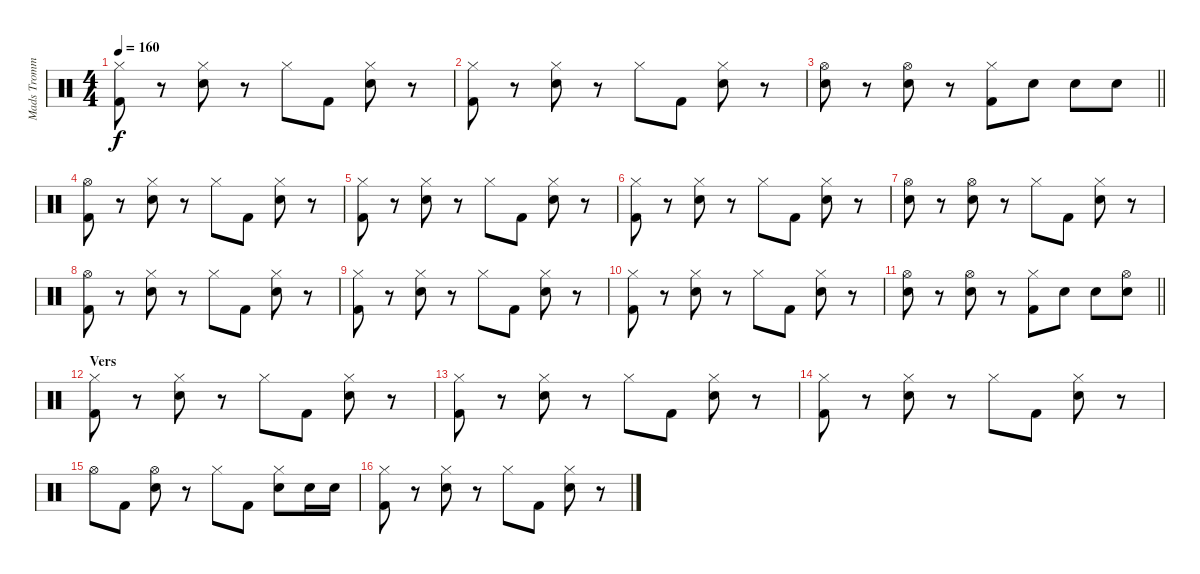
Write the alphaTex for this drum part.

\track ("Mads Trommer" "Mads Tromm") {instrument percussion}
\staff {score}
\articulation defaults
\ts (4 4)
\tempo 160
\clef neutral
\ks c
("Hi-Hat (closed)" "Kick (hit) 2").8{dy f} r.8 ("Hi-Hat (closed)" "Electric Snare (hit)").8 r.8 "Hi-Hat (closed)".8 "Kick (hit) 2".8 ("Hi-Hat (closed)" "Electric Snare (hit)").8 r.8 |
("Hi-Hat (closed)" "Kick (hit) 2").8 r.8 ("Hi-Hat (closed)" "Electric Snare (hit)").8 r.8 "Hi-Hat (closed)".8 "Kick (hit) 2".8 ("Hi-Hat (closed)" "Electric Snare (hit)").8 r.8 |
\barLineRight lightlight
("Hi-Hat (open)" "Electric Snare (hit)").8 r.8 ("Hi-Hat (open)" "Electric Snare (hit)").8 r.8 ("Hi-Hat (closed)" "Kick (hit) 2").8 "Electric Snare (hit)".8 "Electric Snare (hit)".8 "Electric Snare (hit)".8 |
("Hi-Hat (open)" "Kick (hit) 2").8 r.8 ("Hi-Hat (closed)" "Electric Snare (hit)").8 r.8 "Hi-Hat (closed)".8 "Kick (hit) 2".8 ("Hi-Hat (closed)" "Electric Snare (hit)").8 r.8 |
("Hi-Hat (closed)" "Kick (hit) 2").8 r.8 ("Hi-Hat (closed)" "Electric Snare (hit)").8 r.8 "Hi-Hat (closed)".8 "Kick (hit) 2".8 ("Hi-Hat (closed)" "Electric Snare (hit)").8 r.8 |
("Hi-Hat (closed)" "Kick (hit) 2").8 r.8 ("Hi-Hat (closed)" "Electric Snare (hit)").8 r.8 "Hi-Hat (closed)".8 "Kick (hit) 2".8 ("Hi-Hat (closed)" "Electric Snare (hit)").8 r.8 |
("Hi-Hat (open)" "Electric Snare (hit)").8 r.8 ("Hi-Hat (open)" "Electric Snare (hit)").8 r.8 "Hi-Hat (closed)".8 "Kick (hit) 2".8 ("Hi-Hat (closed)" "Electric Snare (hit)").8 r.8 |
("Hi-Hat (open)" "Kick (hit) 2").8 r.8 ("Hi-Hat (closed)" "Electric Snare (hit)").8 r.8 "Hi-Hat (closed)".8 "Kick (hit) 2".8 ("Hi-Hat (closed)" "Electric Snare (hit)").8 r.8 |
("Hi-Hat (closed)" "Kick (hit) 2").8 r.8 ("Hi-Hat (closed)" "Electric Snare (hit)").8 r.8 "Hi-Hat (closed)".8 "Kick (hit) 2".8 ("Hi-Hat (closed)" "Electric Snare (hit)").8 r.8 |
("Hi-Hat (closed)" "Kick (hit) 2").8 r.8 ("Hi-Hat (closed)" "Electric Snare (hit)").8 r.8 "Hi-Hat (closed)".8 "Kick (hit) 2".8 ("Hi-Hat (closed)" "Electric Snare (hit)").8 r.8 |
\barLineRight lightlight
("Hi-Hat (open)" "Electric Snare (hit)").8 r.8 ("Hi-Hat (open)" "Electric Snare (hit)").8 r.8 ("Hi-Hat (closed)" "Kick (hit) 2").8 "Electric Snare (hit)".8 "Electric Snare (hit)".8 ("Hi-Hat (open)" "Electric Snare (hit)").8 |
\section ("" "Vers")
("Hi-Hat (closed)" "Kick (hit) 2").8 r.8 ("Hi-Hat (closed)" "Electric Snare (hit)").8 r.8 "Hi-Hat (closed)".8 "Kick (hit) 2".8 ("Hi-Hat (closed)" "Electric Snare (hit)").8 r.8 |
("Hi-Hat (closed)" "Kick (hit) 2").8 r.8 ("Hi-Hat (closed)" "Electric Snare (hit)").8 r.8 "Hi-Hat (closed)".8 "Kick (hit) 2".8 ("Hi-Hat (closed)" "Electric Snare (hit)").8 r.8 |
("Hi-Hat (closed)" "Kick (hit) 2").8 r.8 ("Hi-Hat (closed)" "Electric Snare (hit)").8 r.8 "Hi-Hat (closed)".8 "Kick (hit) 2".8 ("Hi-Hat (closed)" "Electric Snare (hit)").8 r.8 |
"Hi-Hat (open)".8 "Kick (hit) 2".8 ("Hi-Hat (open)" "Electric Snare (hit)").8 r.8 "Hi-Hat (closed)".8 "Kick (hit) 2".8 ("Hi-Hat (closed)" "Electric Snare (hit)").8 "Electric Snare (hit)".16 "Electric Snare (hit)".16 |
("Hi-Hat (closed)" "Kick (hit) 2").8 r.8 ("Hi-Hat (closed)" "Electric Snare (hit)").8 r.8 "Hi-Hat (closed)".8 "Kick (hit) 2".8 ("Hi-Hat (closed)" "Electric Snare (hit)").8 r.8
